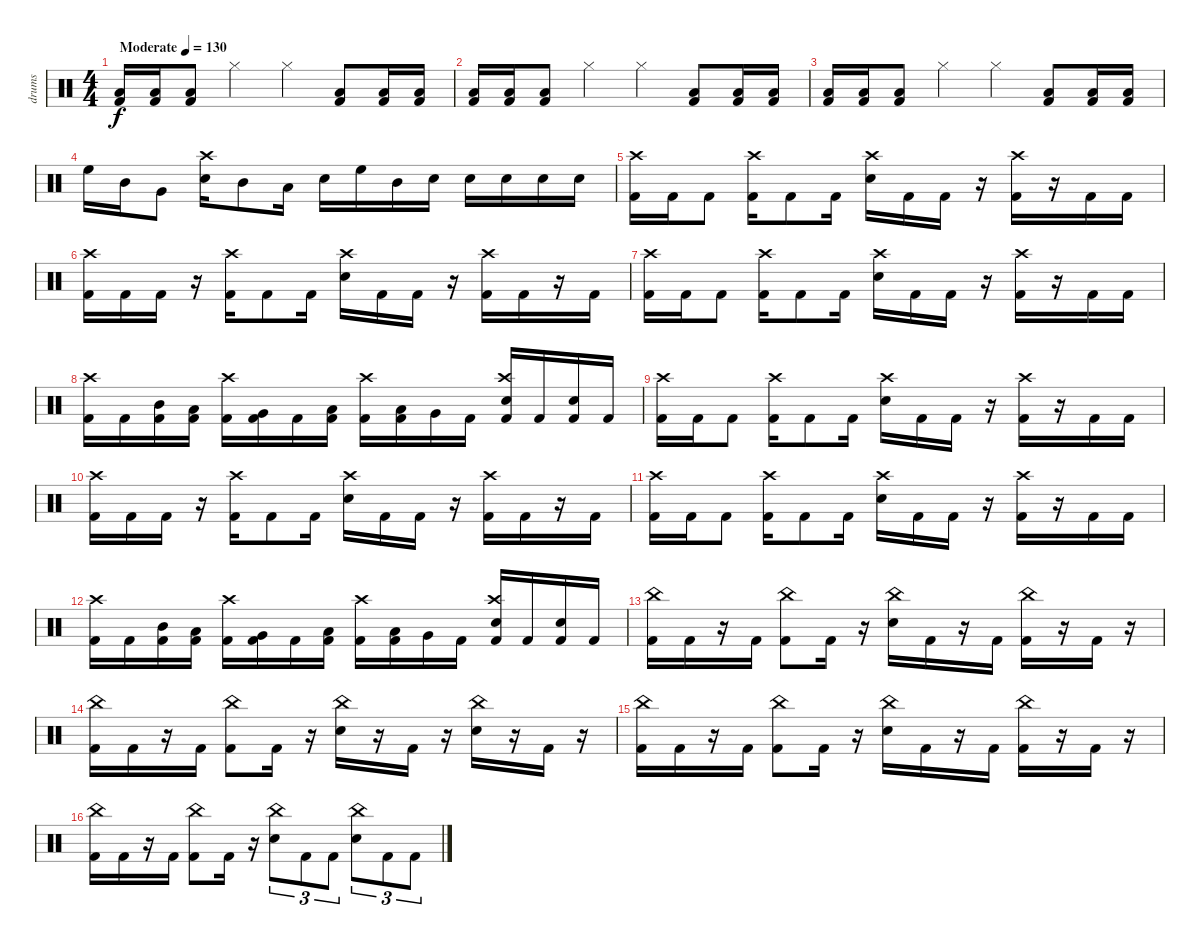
\track ("drums" "drums") {instrument percussion}
\staff {score}
\articulation defaults
\ts (4 4)
\tempo (130 "Moderate")
\clef neutral
\ks c
("Low Tom (hit)" "Kick (hit) 2").16{dy f} ("Low Tom (hit)" "Kick (hit) 2").16 ("Low Tom (hit)" "Kick (hit) 2").8 "Hi-Hat (closed)".4 "Hi-Hat (closed)".4 ("Low Tom (hit)" "Kick (hit) 2").8 ("Low Tom (hit)" "Kick (hit) 2").16 ("Low Tom (hit)" "Kick (hit) 2").16 |
("Low Tom (hit)" "Kick (hit) 2").16 ("Low Tom (hit)" "Kick (hit) 2").16 ("Low Tom (hit)" "Kick (hit) 2").8 "Hi-Hat (closed)".4 "Hi-Hat (closed)".4 ("Low Tom (hit)" "Kick (hit) 2").8 ("Low Tom (hit)" "Kick (hit) 2").16 ("Low Tom (hit)" "Kick (hit) 2").16 |
("Low Tom (hit)" "Kick (hit) 2").16 ("Low Tom (hit)" "Kick (hit) 2").16 ("Low Tom (hit)" "Kick (hit) 2").8 "Hi-Hat (closed)".4 "Hi-Hat (closed)".4 ("Low Tom (hit)" "Kick (hit) 2").8 ("Low Tom (hit)" "Kick (hit) 2").16 ("Low Tom (hit)" "Kick (hit) 2").16 |
"High Floor Tom (hit)".16 "Mid Tom (hit)".16 "Very Low Tom (hit)".8 ("Crash high (hit)" "Electric Snare (hit)").16 "Mid Tom (hit)".8 "Low Tom (hit)".16 "Electric Snare (hit)".16 "High Floor Tom (hit)".16 "Mid Tom (hit)".16 "Electric Snare (hit)".16 "Electric Snare (hit)".16 "Electric Snare (hit)".16 "Electric Snare (hit)".16 "Electric Snare (hit)".16 |
("Crash high (hit)" "Kick (hit) 2").16 "Kick (hit) 2".16 "Kick (hit) 2".8 ("Crash high (hit)" "Kick (hit) 2").16 "Kick (hit) 2".8 "Kick (hit) 2".16 ("Crash high (hit)" "Snare (hit) 2").16 "Kick (hit) 2".16 "Kick (hit) 2".16 r.16 ("Crash high (hit)" "Kick (hit) 2").16 r.16 "Kick (hit) 2".16 "Kick (hit) 2".16 |
("Crash high (hit)" "Kick (hit) 2").16 "Kick (hit) 2".16 "Kick (hit) 2".16 r.16 ("Crash high (hit)" "Kick (hit) 2").16 "Kick (hit) 2".8 "Kick (hit) 2".16 ("Crash high (hit)" "Snare (hit) 2").16 "Kick (hit) 2".16 "Kick (hit) 2".16 r.16 ("Crash high (hit)" "Kick (hit) 2").16 "Kick (hit) 2".16 r.16 "Kick (hit) 2".16 |
("Crash high (hit)" "Kick (hit) 2").16 "Kick (hit) 2".16 "Kick (hit) 2".8 ("Crash high (hit)" "Kick (hit) 2").16 "Kick (hit) 2".8 "Kick (hit) 2".16 ("Crash high (hit)" "Snare (hit) 2").16 "Kick (hit) 2".16 "Kick (hit) 2".16 r.16 ("Crash high (hit)" "Kick (hit) 2").16 r.16 "Kick (hit) 2".16 "Kick (hit) 2".16 |
("Crash high (hit)" "Kick (hit) 2").16 "Kick (hit) 2".16 ("Mid Tom (hit)" "Kick (hit) 2").16 ("Low Tom (hit)" "Kick (hit) 2").16 ("Crash high (hit)" "Kick (hit) 2").16 ("Very Low Tom (hit)" "Kick (hit) 2").16 "Kick (hit) 2".16 ("Low Tom (hit)" "Kick (hit) 2").16 ("Crash high (hit)" "Kick (hit) 2").16 ("Low Tom (hit)" "Kick (hit) 2").16 "Very Low Tom (hit)".16 "Kick (hit) 2".16 ("Crash high (hit)" "Snare (hit) 2" "Kick (hit) 2").16 "Kick (hit) 2".16 ("Snare (hit) 2" "Kick (hit) 2").16 "Kick (hit) 2".16 |
("Crash high (hit)" "Kick (hit) 2").16 "Kick (hit) 2".16 "Kick (hit) 2".8 ("Crash high (hit)" "Kick (hit) 2").16 "Kick (hit) 2".8 "Kick (hit) 2".16 ("Crash high (hit)" "Snare (hit) 2").16 "Kick (hit) 2".16 "Kick (hit) 2".16 r.16 ("Crash high (hit)" "Kick (hit) 2").16 r.16 "Kick (hit) 2".16 "Kick (hit) 2".16 |
("Crash high (hit)" "Kick (hit) 2").16 "Kick (hit) 2".16 "Kick (hit) 2".16 r.16 ("Crash high (hit)" "Kick (hit) 2").16 "Kick (hit) 2".8 "Kick (hit) 2".16 ("Crash high (hit)" "Snare (hit) 2").16 "Kick (hit) 2".16 "Kick (hit) 2".16 r.16 ("Crash high (hit)" "Kick (hit) 2").16 "Kick (hit) 2".16 r.16 "Kick (hit) 2".16 |
("Crash high (hit)" "Kick (hit) 2").16 "Kick (hit) 2".16 "Kick (hit) 2".8 ("Crash high (hit)" "Kick (hit) 2").16 "Kick (hit) 2".8 "Kick (hit) 2".16 ("Crash high (hit)" "Snare (hit) 2").16 "Kick (hit) 2".16 "Kick (hit) 2".16 r.16 ("Crash high (hit)" "Kick (hit) 2").16 r.16 "Kick (hit) 2".16 "Kick (hit) 2".16 |
("Crash high (hit)" "Kick (hit) 2").16 "Kick (hit) 2".16 ("Mid Tom (hit)" "Kick (hit) 2").16 ("Low Tom (hit)" "Kick (hit) 2").16 ("Crash high (hit)" "Kick (hit) 2").16 ("Very Low Tom (hit)" "Kick (hit) 2").16 "Kick (hit) 2".16 ("Low Tom (hit)" "Kick (hit) 2").16 ("Crash high (hit)" "Kick (hit) 2").16 ("Low Tom (hit)" "Kick (hit) 2").16 "Very Low Tom (hit)".16 "Kick (hit) 2".16 ("Crash high (hit)" "Snare (hit) 2" "Kick (hit) 2").16 "Kick (hit) 2".16 ("Snare (hit) 2" "Kick (hit) 2").16 "Kick (hit) 2".16 |
("China (hit)" "Kick (hit) 2").16 "Kick (hit) 2".16 r.16 "Kick (hit) 2".16 ("China (hit)" "Kick (hit) 2").8 "Kick (hit) 2".16 r.16 ("China (hit)" "Electric Snare (hit)").16 "Kick (hit) 2".16 r.16 "Kick (hit) 2".16 ("China (hit)" "Kick (hit) 2").16 r.16 "Kick (hit) 2".16 r.16 |
("China (hit)" "Kick (hit) 2").16 "Kick (hit) 2".16 r.16 "Kick (hit) 2".16 ("China (hit)" "Kick (hit) 2").8 "Kick (hit) 2".16 r.16 ("China (hit)" "Electric Snare (hit)").16 r.16 "Kick (hit) 2".16 r.16 ("China (hit)" "Electric Snare (hit)").16 r.16 "Kick (hit) 2".16 r.16 |
("China (hit)" "Kick (hit) 2").16 "Kick (hit) 2".16 r.16 "Kick (hit) 2".16 ("China (hit)" "Kick (hit) 2").8 "Kick (hit) 2".16 r.16 ("China (hit)" "Electric Snare (hit)").16 "Kick (hit) 2".16 r.16 "Kick (hit) 2".16 ("China (hit)" "Kick (hit) 2").16 r.16 "Kick (hit) 2".16 r.16 |
("China (hit)" "Kick (hit) 2").16 "Kick (hit) 2".16 r.16 "Kick (hit) 2".16 ("China (hit)" "Kick (hit) 2").8 "Kick (hit) 2".16 r.16 ("China (hit)" "Electric Snare (hit)").8{tu (3 2)} "Kick (hit) 2".8{tu (3 2)} "Kick (hit) 2".8{tu (3 2)} ("China (hit)" "Electric Snare (hit)").8{tu (3 2)} "Kick (hit) 2".8{tu (3 2)} "Kick (hit) 2".8{tu (3 2)}
